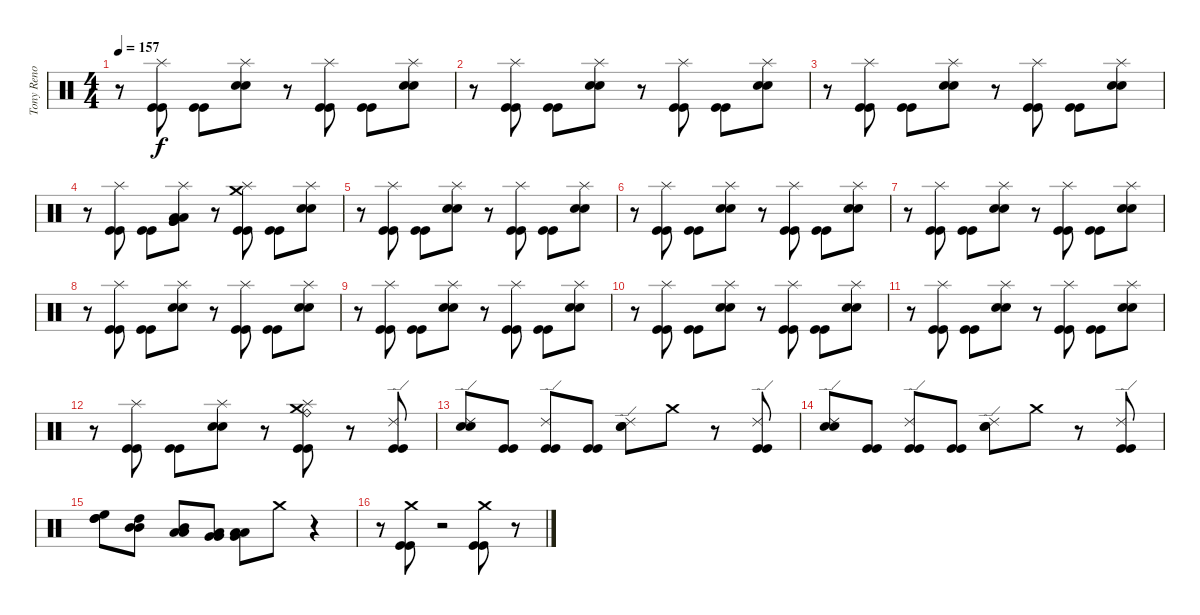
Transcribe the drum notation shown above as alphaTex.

\track ("Tony Reno ( 1984 < Ian Haughland )" "Tony Reno ") {instrument percussion}
\staff {score}
\articulation defaults
\ts (4 4)
\tempo 157
\clef neutral
\ks c
r.8{dy f} ("Kick (hit)" "Kick (hit)" "Splash (hit)").8 ("Kick (hit)" "Kick (hit)").8 ("Splash (hit)" "Electric Snare (hit)" "Electric Snare (hit)").8 r.8 ("Kick (hit)" "Kick (hit)" "Splash (hit)").8 ("Kick (hit)" "Kick (hit)").8 ("Electric Snare (hit)" "Electric Snare (hit)" "Splash (hit)").8 |
r.8 ("Kick (hit)" "Kick (hit)" "Splash (hit)").8 ("Kick (hit)" "Kick (hit)").8 ("Splash (hit)" "Electric Snare (hit)" "Electric Snare (hit)").8 r.8 ("Kick (hit)" "Kick (hit)" "Splash (hit)").8 ("Kick (hit)" "Kick (hit)").8 ("Electric Snare (hit)" "Electric Snare (hit)" "Splash (hit)").8 |
r.8 ("Kick (hit)" "Kick (hit)" "Splash (hit)").8 ("Kick (hit)" "Kick (hit)").8 ("Splash (hit)" "Electric Snare (hit)" "Electric Snare (hit)").8 r.8 ("Kick (hit)" "Kick (hit)" "Splash (hit)").8 ("Kick (hit)" "Kick (hit)").8 ("Electric Snare (hit)" "Electric Snare (hit)" "Splash (hit)").8 |
r.8 ("Kick (hit)" "Kick (hit)" "Splash (hit)").8 ("Kick (hit)" "Kick (hit)").8 ("Low Tom (hit)" "Low Tom (hit)" "Very Low Tom (hit)" "Very Low Tom (hit)" "Splash (hit)").8 r.8 ("Crash medium (hit)" "Kick (hit)" "Kick (hit)" "Splash (hit)").8 ("Kick (hit)" "Kick (hit)").8 ("Electric Snare (hit)" "Electric Snare (hit)" "Splash (hit)").8 |
r.8 ("Kick (hit)" "Kick (hit)" "Splash (hit)").8 ("Kick (hit)" "Kick (hit)").8 ("Splash (hit)" "Electric Snare (hit)" "Electric Snare (hit)").8 r.8 ("Kick (hit)" "Kick (hit)" "Splash (hit)").8 ("Kick (hit)" "Kick (hit)").8 ("Electric Snare (hit)" "Electric Snare (hit)" "Splash (hit)").8 |
r.8 ("Kick (hit)" "Kick (hit)" "Splash (hit)").8 ("Kick (hit)" "Kick (hit)").8 ("Splash (hit)" "Electric Snare (hit)" "Electric Snare (hit)").8 r.8 ("Kick (hit)" "Kick (hit)" "Splash (hit)").8 ("Kick (hit)" "Kick (hit)").8 ("Electric Snare (hit)" "Electric Snare (hit)" "Splash (hit)").8 |
r.8 ("Kick (hit)" "Kick (hit)" "Splash (hit)").8 ("Kick (hit)" "Kick (hit)").8 ("Splash (hit)" "Electric Snare (hit)" "Electric Snare (hit)").8 r.8 ("Kick (hit)" "Kick (hit)" "Splash (hit)").8 ("Kick (hit)" "Kick (hit)").8 ("Electric Snare (hit)" "Electric Snare (hit)" "Splash (hit)").8 |
r.8 ("Kick (hit)" "Kick (hit)" "Splash (hit)").8 ("Kick (hit)" "Kick (hit)").8 ("Splash (hit)" "Electric Snare (hit)" "Electric Snare (hit)").8 r.8 ("Kick (hit)" "Kick (hit)" "Splash (hit)").8 ("Kick (hit)" "Kick (hit)").8 ("Electric Snare (hit)" "Electric Snare (hit)" "Splash (hit)").8 |
r.8 ("Kick (hit)" "Kick (hit)" "Splash (hit)").8 ("Kick (hit)" "Kick (hit)").8 ("Splash (hit)" "Electric Snare (hit)" "Electric Snare (hit)").8 r.8 ("Kick (hit)" "Kick (hit)" "Splash (hit)").8 ("Kick (hit)" "Kick (hit)").8 ("Electric Snare (hit)" "Electric Snare (hit)" "Splash (hit)").8 |
r.8 ("Kick (hit)" "Kick (hit)" "Splash (hit)").8 ("Kick (hit)" "Kick (hit)").8 ("Splash (hit)" "Electric Snare (hit)" "Electric Snare (hit)").8 r.8 ("Kick (hit)" "Kick (hit)" "Splash (hit)").8 ("Kick (hit)" "Kick (hit)").8 ("Electric Snare (hit)" "Electric Snare (hit)" "Splash (hit)").8 |
r.8 ("Kick (hit)" "Kick (hit)" "Splash (hit)").8 ("Kick (hit)" "Kick (hit)").8 ("Splash (hit)" "Electric Snare (hit)" "Electric Snare (hit)").8 r.8 ("Kick (hit)" "Kick (hit)" "Splash (hit)").8 ("Kick (hit)" "Kick (hit)").8 ("Electric Snare (hit)" "Electric Snare (hit)" "Splash (hit)").8 |
r.8 ("Kick (hit)" "Kick (hit)" "Splash (hit)").8 ("Kick (hit)" "Kick (hit)").8 ("Splash (hit)" "Electric Snare (hit)" "Electric Snare (hit)").8 r.8 ("Ride (bell)" "Crash medium (hit)" "Kick (hit)" "Kick (hit)" "Splash (hit)").8 r.8 ("Kick (hit)" "Kick (hit)" "Ride (edge) 2").8 |
("Electric Snare (hit)" "Electric Snare (hit)" "Ride (edge) 2").8 ("Kick (hit)" "Kick (hit)").8 ("Kick (hit)" "Kick (hit)" "Ride (edge) 2").8 ("Kick (hit)" "Kick (hit)").8 ("Electric Snare (hit)" "Electric Snare (hit)" "Ride (edge) 2").8 "Crash medium (hit)".8 r.8 ("Kick (hit)" "Kick (hit)" "Ride (edge) 2").8 |
("Electric Snare (hit)" "Electric Snare (hit)" "Ride (edge) 2").8 ("Kick (hit)" "Kick (hit)").8 ("Kick (hit)" "Kick (hit)" "Ride (edge) 2").8 ("Kick (hit)" "Kick (hit)").8 ("Electric Snare (hit)" "Electric Snare (hit)" "Ride (edge) 2").8 "Crash medium (hit)".8 r.8 ("Kick (hit)" "Kick (hit)" "Ride (edge) 2").8 |
("High Floor Tom (hit)" "High Tom (hit)" "High Tom (hit)").8 ("High Tom (hit)" "Mid Tom (hit)" "Mid Tom (hit)").8 ("Mid Tom (hit)" "Low Tom (hit)" "Low Tom (hit)").8 ("Low Tom (hit)" "Very Low Tom (hit)" "Very Low Tom (hit)").8 ("Very Low Tom (hit)" "Low Floor Tom (hit)" "Low Floor Tom (hit)").8 "Crash medium (hit)".8 r.4 |
r.8 ("Kick (hit)" "Kick (hit)" "Crash medium (hit)").8 r.2 ("Kick (hit)" "Kick (hit)" "Crash medium (hit)").8 r.8
